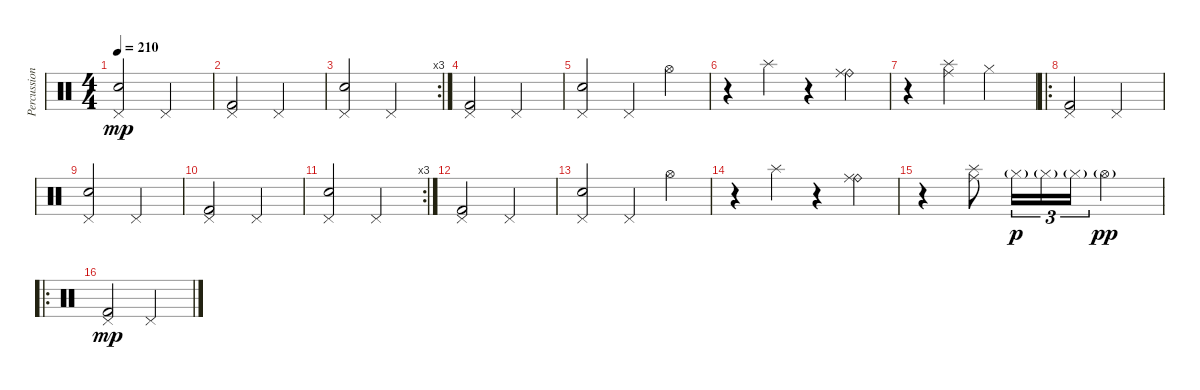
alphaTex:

\track ("Percussion" "Percussion") {instrument percussion}
\staff {score}
\articulation defaults
\ts (4 4)
\tempo 210
\clef neutral
\ks c
("Pedal Hi-Hat (hit)" "Electric Snare (hit)").2{dy mp} "Pedal Hi-Hat (hit)".2 |
("Pedal Hi-Hat (hit)" "Kick (hit) 2").2 "Pedal Hi-Hat (hit)".2 |
\rc 3
("Pedal Hi-Hat (hit)" "Electric Snare (hit)").2 "Pedal Hi-Hat (hit)".2 |
("Pedal Hi-Hat (hit)" "Kick (hit) 2").2 "Pedal Hi-Hat (hit)".2 |
("Pedal Hi-Hat (hit)" "Electric Snare (hit)").2 "Pedal Hi-Hat (hit)".4 "Hi-Hat (open)".4 |
r.4 "Splash (hit)".4 r.4 ("Ride (bell)" "Ride (middle)").4 |
r.4 ("Ride (middle)" "Splash (hit)").4 "Hi-Hat (closed)".2 |
\ro
("Pedal Hi-Hat (hit)" "Kick (hit) 2").2 "Pedal Hi-Hat (hit)".2 |
("Pedal Hi-Hat (hit)" "Electric Snare (hit)").2 "Pedal Hi-Hat (hit)".2 |
("Pedal Hi-Hat (hit)" "Kick (hit) 2").2 "Pedal Hi-Hat (hit)".2 |
\rc 3
("Pedal Hi-Hat (hit)" "Electric Snare (hit)").2 "Pedal Hi-Hat (hit)".2 |
("Pedal Hi-Hat (hit)" "Kick (hit) 2").2 "Pedal Hi-Hat (hit)".2 |
("Pedal Hi-Hat (hit)" "Electric Snare (hit)").2 "Pedal Hi-Hat (hit)".4 "Hi-Hat (open)".4 |
r.4 "Splash (hit)".4 r.4 ("Ride (bell)" "Ride (middle)").4 |
r.4 ("Ride (middle)" "Splash (hit)").8 "Hi-Hat (closed)"{g}.16{tu (3 2) dy p} "Hi-Hat (closed)"{g}.16{tu (3 2)} "Hi-Hat (closed)"{g}.16{tu (3 2)} "Hi-Hat (open)"{g}.2{dy pp} |
\ro
("Pedal Hi-Hat (hit)" "Kick (hit) 2").2{dy mp} "Pedal Hi-Hat (hit)".2
